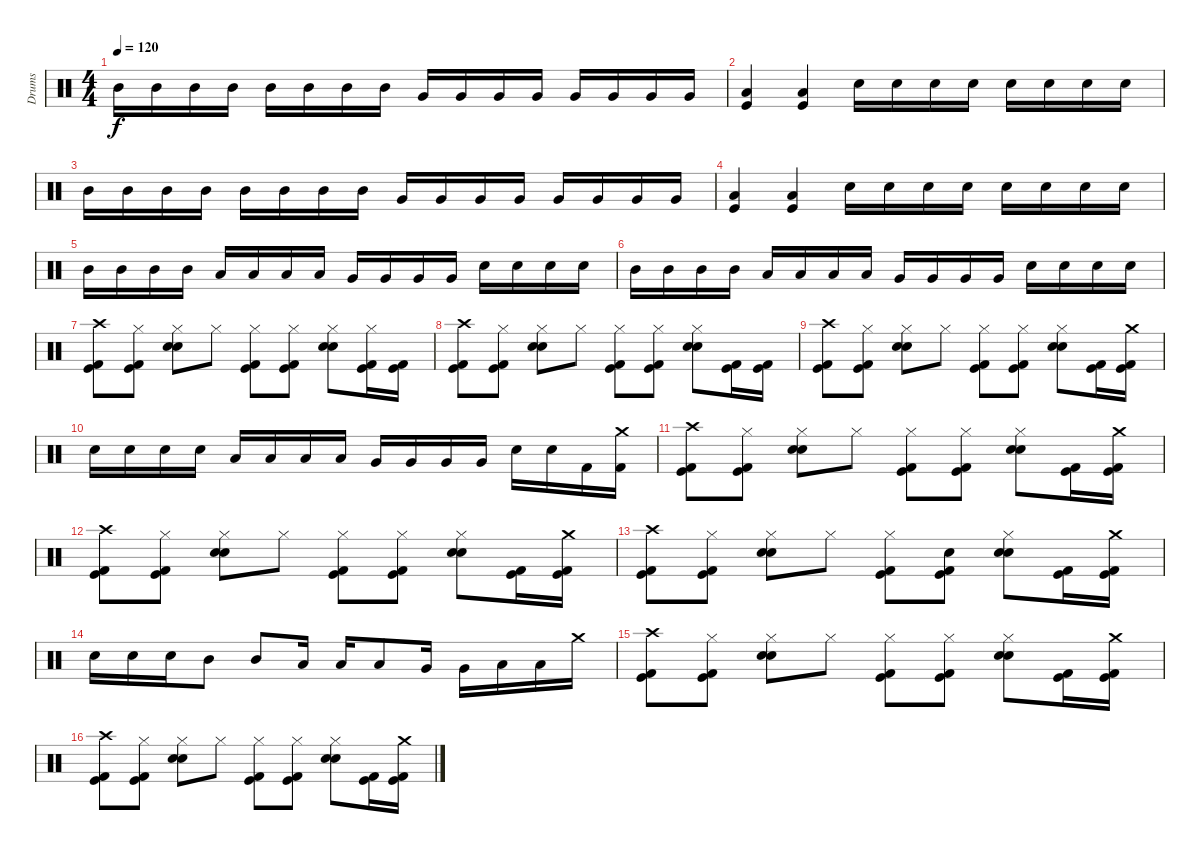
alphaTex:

\track ("Drums" "Drums") {instrument percussion}
\staff {score}
\articulation defaults
\ts (4 4)
\tempo 120
\clef neutral
\ks c "Mid Tom (hit)".16{dy f} "Mid Tom (hit)".16 "Mid Tom (hit)".16 "Mid Tom (hit)".16 "Mid Tom (hit)".16 "Mid Tom (hit)".16 "Mid Tom (hit)".16 "Mid Tom (hit)".16 "Very Low Tom (hit)".16 "Very Low Tom (hit)".16 "Very Low Tom (hit)".16 "Very Low Tom (hit)".16 "Very Low Tom (hit)".16 "Very Low Tom (hit)".16 "Very Low Tom (hit)".16 "Very Low Tom (hit)".16
|
("Kick (hit)" "Low Floor Tom (hit)").4 ("Kick (hit)" "Low Floor Tom (hit)").4 "Electric Snare (hit)".16 "Electric Snare (hit)".16 "Electric Snare (hit)".16 "Electric Snare (hit)".16 "Electric Snare (hit)".16 "Electric Snare (hit)".16 "Electric Snare (hit)".16 "Electric Snare (hit)".16 |
"Mid Tom (hit)".16 "Mid Tom (hit)".16 "Mid Tom (hit)".16 "Mid Tom (hit)".16 "Mid Tom (hit)".16 "Mid Tom (hit)".16 "Mid Tom (hit)".16 "Mid Tom (hit)".16 "Very Low Tom (hit)".16 "Very Low Tom (hit)".16 "Very Low Tom (hit)".16 "Very Low Tom (hit)".16 "Very Low Tom (hit)".16 "Very Low Tom (hit)".16 "Very Low Tom (hit)".16 "Very Low Tom (hit)".16 |
("Kick (hit)" "Low Floor Tom (hit)").4 ("Kick (hit)" "Low Floor Tom (hit)").4 "Electric Snare (hit)".16 "Electric Snare (hit)".16 "Electric Snare (hit)".16 "Electric Snare (hit)".16 "Electric Snare (hit)".16 "Electric Snare (hit)".16 "Electric Snare (hit)".16 "Electric Snare (hit)".16 |
"Mid Tom (hit)".16 "Mid Tom (hit)".16 "Mid Tom (hit)".16 "Mid Tom (hit)".16 "Low Tom (hit)".16 "Low Tom (hit)".16 "Low Tom (hit)".16 "Low Tom (hit)".16 "Very Low Tom (hit)".16 "Very Low Tom (hit)".16 "Very Low Tom (hit)".16 "Very Low Tom (hit)".16 "Snare (hit) 2".16 "Snare (hit) 2".16 "Snare (hit) 2".16 "Snare (hit) 2".16 |
"Mid Tom (hit)".16 "Mid Tom (hit)".16 "Mid Tom (hit)".16 "Mid Tom (hit)".16 "Low Tom (hit)".16 "Low Tom (hit)".16 "Low Tom (hit)".16 "Low Tom (hit)".16 "Very Low Tom (hit)".16 "Very Low Tom (hit)".16 "Very Low Tom (hit)".16 "Very Low Tom (hit)".16 "Snare (hit) 2".16 "Snare (hit) 2".16 "Snare (hit) 2".16 "Snare (hit) 2".16 |
("Crash high (hit)" "Kick (hit) 2" "Kick (hit)").8 ("Hi-Hat (closed)" "Kick (hit) 2" "Kick (hit)").8 ("Snare (hit) 2" "Hi-Hat (closed)" "Electric Snare (hit)").8 "Hi-Hat (closed)".8 ("Hi-Hat (closed)" "Kick (hit) 2" "Kick (hit)").8 ("Hi-Hat (closed)" "Kick (hit) 2" "Kick (hit)").8 ("Snare (hit) 2" "Hi-Hat (closed)" "Electric Snare (hit)").8 ("Hi-Hat (closed)" "Kick (hit) 2" "Kick (hit)").16 ("Kick (hit) 2" "Kick (hit)").16 |
("Crash high (hit)" "Kick (hit) 2" "Kick (hit)").8 ("Hi-Hat (closed)" "Kick (hit) 2" "Kick (hit)").8 ("Snare (hit) 2" "Hi-Hat (closed)" "Electric Snare (hit)").8 "Hi-Hat (closed)".8 ("Hi-Hat (closed)" "Kick (hit) 2" "Kick (hit)").8 ("Hi-Hat (closed)" "Kick (hit) 2" "Kick (hit)").8 ("Snare (hit) 2" "Hi-Hat (closed)" "Electric Snare (hit)").8 ("Kick (hit) 2" "Kick (hit)").16 ("Kick (hit) 2" "Kick (hit)").16 |
("Crash high (hit)" "Kick (hit) 2" "Kick (hit)").8 ("Hi-Hat (closed)" "Kick (hit) 2" "Kick (hit)").8 ("Snare (hit) 2" "Hi-Hat (closed)" "Electric Snare (hit)").8 "Hi-Hat (closed)".8 ("Hi-Hat (closed)" "Kick (hit) 2" "Kick (hit)").8 ("Hi-Hat (closed)" "Kick (hit) 2" "Kick (hit)").8 ("Snare (hit) 2" "Hi-Hat (closed)" "Electric Snare (hit)").8 ("Kick (hit) 2" "Kick (hit)").16 ("Crash medium (hit)" "Kick (hit) 2" "Kick (hit)").16 |
"Electric Snare (hit)".16 "Electric Snare (hit)".16 "Electric Snare (hit)".16 "Electric Snare (hit)".16 "Low Tom (hit)".16 "Low Tom (hit)".16 "Low Tom (hit)".16 "Low Tom (hit)".16 "Very Low Tom (hit)".16 "Very Low Tom (hit)".16 "Very Low Tom (hit)".16 "Very Low Tom (hit)".16 "Electric Snare (hit)".16 "Electric Snare (hit)".16 "Kick (hit) 2".16 ("Crash medium (hit)" "Kick (hit) 2").16 |
("Crash high (hit)" "Kick (hit) 2" "Kick (hit)").8 ("Hi-Hat (closed)" "Kick (hit) 2" "Kick (hit)").8 ("Snare (hit) 2" "Hi-Hat (closed)" "Electric Snare (hit)").8 "Hi-Hat (closed)".8 ("Hi-Hat (closed)" "Kick (hit) 2" "Kick (hit)").8 ("Hi-Hat (closed)" "Kick (hit) 2" "Kick (hit)").8 ("Snare (hit) 2" "Hi-Hat (closed)" "Electric Snare (hit)").8 ("Kick (hit) 2" "Kick (hit)").16 ("Crash medium (hit)" "Kick (hit) 2" "Kick (hit)").16 |
("Crash high (hit)" "Kick (hit) 2" "Kick (hit)").8 ("Hi-Hat (closed)" "Kick (hit) 2" "Kick (hit)").8 ("Snare (hit) 2" "Hi-Hat (closed)" "Electric Snare (hit)").8 "Hi-Hat (closed)".8 ("Hi-Hat (closed)" "Kick (hit) 2" "Kick (hit)").8 ("Hi-Hat (closed)" "Kick (hit) 2" "Kick (hit)").8 ("Snare (hit) 2" "Hi-Hat (closed)" "Electric Snare (hit)").8 ("Kick (hit) 2" "Kick (hit)").16 ("Crash medium (hit)" "Kick (hit) 2" "Kick (hit)").16 |
("Crash high (hit)" "Kick (hit) 2" "Kick (hit)").8 ("Hi-Hat (closed)" "Kick (hit) 2" "Kick (hit)").8 ("Snare (hit) 2" "Hi-Hat (closed)" "Electric Snare (hit)").8 "Hi-Hat (closed)".8 ("Hi-Hat (closed)" "Kick (hit) 2" "Kick (hit)").8 ("Snare (hit)" "Kick (hit) 2" "Kick (hit)").8 ("Snare (hit) 2" "Hi-Hat (closed)" "Electric Snare (hit)").8 ("Kick (hit) 2" "Kick (hit)").16 ("Crash medium (hit)" "Kick (hit) 2" "Kick (hit)").16 |
"Electric Snare (hit)".16 "Electric Snare (hit)".16 "Electric Snare (hit)".16 "Mid Tom (hit)".8 "Mid Tom (hit)".8 "Low Tom (hit)".16 "Low Tom (hit)".16 "Low Tom (hit)".8 "Very Low Tom (hit)".16 "Very Low Tom (hit)".16 "Low Floor Tom (hit)".16 "Low Floor Tom (hit)".16 "Crash medium (hit)".16 |
("Crash high (hit)" "Kick (hit) 2" "Kick (hit)").8 ("Hi-Hat (closed)" "Kick (hit) 2" "Kick (hit)").8 ("Snare (hit) 2" "Hi-Hat (closed)" "Electric Snare (hit)").8 "Hi-Hat (closed)".8 ("Hi-Hat (closed)" "Kick (hit) 2" "Kick (hit)").8 ("Hi-Hat (closed)" "Kick (hit) 2" "Kick (hit)").8 ("Snare (hit) 2" "Hi-Hat (closed)" "Electric Snare (hit)").8 ("Kick (hit) 2" "Kick (hit)").16 ("Crash medium (hit)" "Kick (hit) 2" "Kick (hit)").16 |
("Crash high (hit)" "Kick (hit) 2" "Kick (hit)").8 ("Hi-Hat (closed)" "Kick (hit) 2" "Kick (hit)").8 ("Snare (hit) 2" "Hi-Hat (closed)" "Electric Snare (hit)").8 "Hi-Hat (closed)".8 ("Hi-Hat (closed)" "Kick (hit) 2" "Kick (hit)").8 ("Hi-Hat (closed)" "Kick (hit) 2" "Kick (hit)").8 ("Snare (hit) 2" "Hi-Hat (closed)" "Electric Snare (hit)").8 ("Kick (hit) 2" "Kick (hit)").16 ("Crash medium (hit)" "Kick (hit) 2" "Kick (hit)").16
